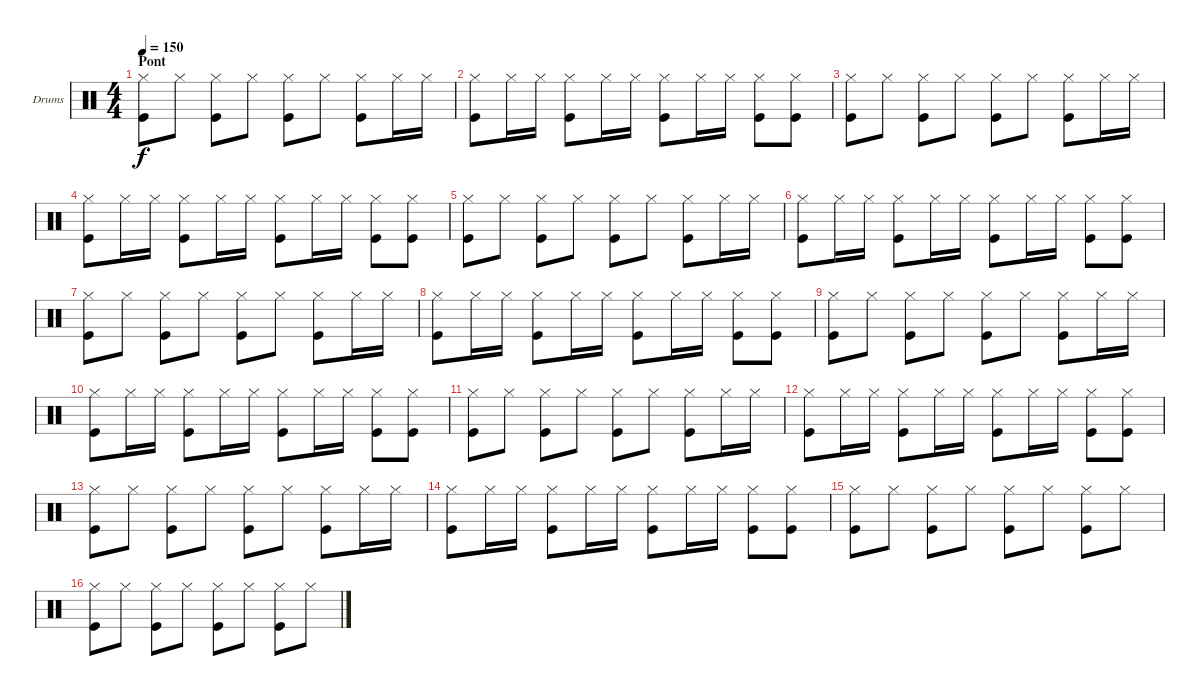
\bracketExtendMode groupsimilarinstruments
\firstSystemTrackNameOrientation horizontal
\otherSystemsTrackNameOrientation horizontal
\track ("Drumkit" "Drums") {instrument percussion}
\staff {score}
\articulation defaults
\ts (4 4)
\section ("" "Pont")
\tempo 150
\clef neutral
\ks c
("Hi-Hat (closed)" "Kick (hit)").8{dy f} "Hi-Hat (closed)".8 ("Hi-Hat (closed)" "Kick (hit)").8 "Hi-Hat (closed)".8 ("Hi-Hat (closed)" "Kick (hit)").8 "Hi-Hat (closed)".8 ("Hi-Hat (closed)" "Kick (hit)").8 "Hi-Hat (closed)".16 "Hi-Hat (closed)".16 |
("Hi-Hat (closed)" "Kick (hit)").8 "Hi-Hat (closed)".16 "Hi-Hat (closed)".16 ("Hi-Hat (closed)" "Kick (hit)").8 "Hi-Hat (closed)".16 "Hi-Hat (closed)".16 ("Hi-Hat (closed)" "Kick (hit)").8 "Hi-Hat (closed)".16 "Hi-Hat (closed)".16 ("Hi-Hat (closed)" "Kick (hit)").8 ("Hi-Hat (closed)" "Kick (hit)").8 |
("Hi-Hat (closed)" "Kick (hit)").8 "Hi-Hat (closed)".8 ("Hi-Hat (closed)" "Kick (hit)").8 "Hi-Hat (closed)".8 ("Hi-Hat (closed)" "Kick (hit)").8 "Hi-Hat (closed)".8 ("Hi-Hat (closed)" "Kick (hit)").8 "Hi-Hat (closed)".16 "Hi-Hat (closed)".16 |
("Hi-Hat (closed)" "Kick (hit)").8 "Hi-Hat (closed)".16 "Hi-Hat (closed)".16 ("Hi-Hat (closed)" "Kick (hit)").8 "Hi-Hat (closed)".16 "Hi-Hat (closed)".16 ("Hi-Hat (closed)" "Kick (hit)").8 "Hi-Hat (closed)".16 "Hi-Hat (closed)".16 ("Hi-Hat (closed)" "Kick (hit)").8 ("Hi-Hat (closed)" "Kick (hit)").8 |
("Hi-Hat (closed)" "Kick (hit)").8 "Hi-Hat (closed)".8 ("Hi-Hat (closed)" "Kick (hit)").8 "Hi-Hat (closed)".8 ("Hi-Hat (closed)" "Kick (hit)").8 "Hi-Hat (closed)".8 ("Hi-Hat (closed)" "Kick (hit)").8 "Hi-Hat (closed)".16 "Hi-Hat (closed)".16 |
("Hi-Hat (closed)" "Kick (hit)").8 "Hi-Hat (closed)".16 "Hi-Hat (closed)".16 ("Hi-Hat (closed)" "Kick (hit)").8 "Hi-Hat (closed)".16 "Hi-Hat (closed)".16 ("Hi-Hat (closed)" "Kick (hit)").8 "Hi-Hat (closed)".16 "Hi-Hat (closed)".16 ("Hi-Hat (closed)" "Kick (hit)").8 ("Hi-Hat (closed)" "Kick (hit)").8 |
("Hi-Hat (closed)" "Kick (hit)").8 "Hi-Hat (closed)".8 ("Hi-Hat (closed)" "Kick (hit)").8 "Hi-Hat (closed)".8 ("Hi-Hat (closed)" "Kick (hit)").8 "Hi-Hat (closed)".8 ("Hi-Hat (closed)" "Kick (hit)").8 "Hi-Hat (closed)".16 "Hi-Hat (closed)".16 |
("Hi-Hat (closed)" "Kick (hit)").8 "Hi-Hat (closed)".16 "Hi-Hat (closed)".16 ("Hi-Hat (closed)" "Kick (hit)").8 "Hi-Hat (closed)".16 "Hi-Hat (closed)".16 ("Hi-Hat (closed)" "Kick (hit)").8 "Hi-Hat (closed)".16 "Hi-Hat (closed)".16 ("Hi-Hat (closed)" "Kick (hit)").8 ("Hi-Hat (closed)" "Kick (hit)").8 |
("Hi-Hat (closed)" "Kick (hit)").8 "Hi-Hat (closed)".8 ("Hi-Hat (closed)" "Kick (hit)").8 "Hi-Hat (closed)".8 ("Hi-Hat (closed)" "Kick (hit)").8 "Hi-Hat (closed)".8 ("Hi-Hat (closed)" "Kick (hit)").8 "Hi-Hat (closed)".16 "Hi-Hat (closed)".16 |
("Hi-Hat (closed)" "Kick (hit)").8 "Hi-Hat (closed)".16 "Hi-Hat (closed)".16 ("Hi-Hat (closed)" "Kick (hit)").8 "Hi-Hat (closed)".16 "Hi-Hat (closed)".16 ("Hi-Hat (closed)" "Kick (hit)").8 "Hi-Hat (closed)".16 "Hi-Hat (closed)".16 ("Hi-Hat (closed)" "Kick (hit)").8 ("Hi-Hat (closed)" "Kick (hit)").8 |
("Hi-Hat (closed)" "Kick (hit)").8 "Hi-Hat (closed)".8 ("Hi-Hat (closed)" "Kick (hit)").8 "Hi-Hat (closed)".8 ("Hi-Hat (closed)" "Kick (hit)").8 "Hi-Hat (closed)".8 ("Hi-Hat (closed)" "Kick (hit)").8 "Hi-Hat (closed)".16 "Hi-Hat (closed)".16 |
("Hi-Hat (closed)" "Kick (hit)").8 "Hi-Hat (closed)".16 "Hi-Hat (closed)".16 ("Hi-Hat (closed)" "Kick (hit)").8 "Hi-Hat (closed)".16 "Hi-Hat (closed)".16 ("Hi-Hat (closed)" "Kick (hit)").8 "Hi-Hat (closed)".16 "Hi-Hat (closed)".16 ("Hi-Hat (closed)" "Kick (hit)").8 ("Hi-Hat (closed)" "Kick (hit)").8 |
("Hi-Hat (closed)" "Kick (hit)").8 "Hi-Hat (closed)".8 ("Hi-Hat (closed)" "Kick (hit)").8 "Hi-Hat (closed)".8 ("Hi-Hat (closed)" "Kick (hit)").8 "Hi-Hat (closed)".8 ("Hi-Hat (closed)" "Kick (hit)").8 "Hi-Hat (closed)".16 "Hi-Hat (closed)".16 |
("Hi-Hat (closed)" "Kick (hit)").8 "Hi-Hat (closed)".16 "Hi-Hat (closed)".16 ("Hi-Hat (closed)" "Kick (hit)").8 "Hi-Hat (closed)".16 "Hi-Hat (closed)".16 ("Hi-Hat (closed)" "Kick (hit)").8 "Hi-Hat (closed)".16 "Hi-Hat (closed)".16 ("Hi-Hat (closed)" "Kick (hit)").8 ("Hi-Hat (closed)" "Kick (hit)").8 |
("Hi-Hat (closed)" "Kick (hit)").8 "Hi-Hat (closed)".8 ("Hi-Hat (closed)" "Kick (hit)").8 "Hi-Hat (closed)".8 ("Hi-Hat (closed)" "Kick (hit)").8 "Hi-Hat (closed)".8 ("Hi-Hat (closed)" "Kick (hit)").8 "Hi-Hat (closed)".8 |
("Hi-Hat (closed)" "Kick (hit)").8 "Hi-Hat (closed)".8 ("Hi-Hat (closed)" "Kick (hit)").8 "Hi-Hat (closed)".8 ("Hi-Hat (closed)" "Kick (hit)").8 "Hi-Hat (closed)".8 ("Hi-Hat (closed)" "Kick (hit)").8 "Hi-Hat (closed)".8
